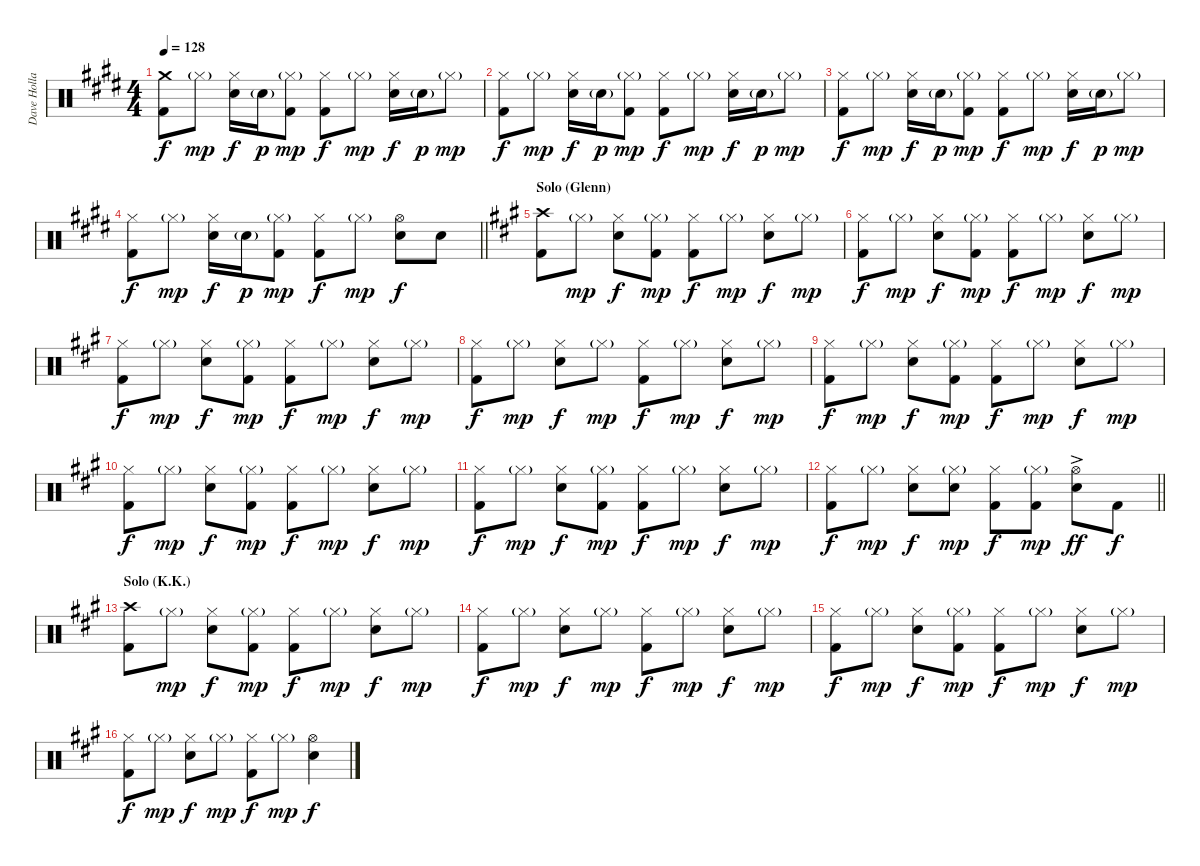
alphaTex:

\track ("Dave Holland" "Dave Holla") {instrument percussion}
\staff {score}
\articulation defaults
\ts (4 4)
\tempo 128
\clef neutral
\ks e
("Crash medium (hit)" "Kick (hit) 2").8{dy f} "Hi-Hat (closed)"{g}.8{dy mp} ("Hi-Hat (closed)" "Electric Snare (hit)").16{dy f} "Electric Snare (hit)"{g}.16{dy p} ("Hi-Hat (closed)"{g} "Kick (hit) 2").8{dy mp} ("Hi-Hat (closed)" "Kick (hit) 2").8{dy f} "Hi-Hat (closed)"{g}.8{dy mp} ("Hi-Hat (closed)" "Electric Snare (hit)").16{dy f} "Electric Snare (hit)"{g}.16{dy p} "Hi-Hat (closed)"{g}.8{dy mp} |
("Hi-Hat (closed)" "Kick (hit) 2").8{dy f} "Hi-Hat (closed)"{g}.8{dy mp} ("Hi-Hat (closed)" "Electric Snare (hit)").16{dy f} "Electric Snare (hit)"{g}.16{dy p} ("Hi-Hat (closed)"{g} "Kick (hit) 2").8{dy mp} ("Hi-Hat (closed)" "Kick (hit) 2").8{dy f} "Hi-Hat (closed)"{g}.8{dy mp} ("Hi-Hat (closed)" "Electric Snare (hit)").16{dy f} "Electric Snare (hit)"{g}.16{dy p} "Hi-Hat (closed)"{g}.8{dy mp} |
("Hi-Hat (closed)" "Kick (hit) 2").8{dy f} "Hi-Hat (closed)"{g}.8{dy mp} ("Hi-Hat (closed)" "Electric Snare (hit)").16{dy f} "Electric Snare (hit)"{g}.16{dy p} ("Hi-Hat (closed)"{g} "Kick (hit) 2").8{dy mp} ("Hi-Hat (closed)" "Kick (hit) 2").8{dy f} "Hi-Hat (closed)"{g}.8{dy mp} ("Hi-Hat (closed)" "Electric Snare (hit)").16{dy f} "Electric Snare (hit)"{g}.16{dy p} "Hi-Hat (closed)"{g}.8{dy mp} |
\barLineRight lightlight
("Hi-Hat (closed)" "Kick (hit) 2").8{dy f} "Hi-Hat (closed)"{g}.8{dy mp} ("Hi-Hat (closed)" "Electric Snare (hit)").16{dy f} "Electric Snare (hit)"{g}.16{dy p} ("Hi-Hat (closed)"{g} "Kick (hit) 2").8{dy mp} ("Hi-Hat (closed)" "Kick (hit) 2").8{dy f} "Hi-Hat (closed)"{g}.8{dy mp} ("Hi-Hat (open)" "Electric Snare (hit)").8{dy f} "Electric Snare (hit)".8 |
\section ("" "Solo (Glenn)")
\ks a
("Crash high (hit)" "Kick (hit) 2").8 "Hi-Hat (closed)"{g}.8{dy mp} ("Hi-Hat (closed)" "Electric Snare (hit)").8{dy f} ("Hi-Hat (closed)"{g} "Kick (hit) 2").8{dy mp} ("Hi-Hat (closed)" "Kick (hit) 2").8{dy f} "Hi-Hat (closed)"{g}.8{dy mp} ("Hi-Hat (closed)" "Electric Snare (hit)").8{dy f} "Hi-Hat (closed)"{g}.8{dy mp} |
("Hi-Hat (closed)" "Kick (hit) 2").8{dy f} "Hi-Hat (closed)"{g}.8{dy mp} ("Hi-Hat (closed)" "Electric Snare (hit)").8{dy f} ("Hi-Hat (closed)"{g} "Kick (hit) 2").8{dy mp} ("Hi-Hat (closed)" "Kick (hit) 2").8{dy f} "Hi-Hat (closed)"{g}.8{dy mp} ("Hi-Hat (closed)" "Electric Snare (hit)").8{dy f} "Hi-Hat (closed)"{g}.8{dy mp} |
("Hi-Hat (closed)" "Kick (hit) 2").8{dy f} "Hi-Hat (closed)"{g}.8{dy mp} ("Hi-Hat (closed)" "Electric Snare (hit)").8{dy f} ("Hi-Hat (closed)"{g} "Kick (hit) 2").8{dy mp} ("Hi-Hat (closed)" "Kick (hit) 2").8{dy f} "Hi-Hat (closed)"{g}.8{dy mp} ("Hi-Hat (closed)" "Electric Snare (hit)").8{dy f} "Hi-Hat (closed)"{g}.8{dy mp} |
("Hi-Hat (closed)" "Kick (hit) 2").8{dy f} "Hi-Hat (closed)"{g}.8{dy mp} ("Hi-Hat (closed)" "Electric Snare (hit)").8{dy f} "Hi-Hat (closed)"{g}.8{dy mp} ("Hi-Hat (closed)" "Kick (hit) 2").8{dy f} "Hi-Hat (closed)"{g}.8{dy mp} ("Hi-Hat (closed)" "Electric Snare (hit)").8{dy f} "Hi-Hat (closed)"{g}.8{dy mp} |
("Hi-Hat (closed)" "Kick (hit) 2").8{dy f} "Hi-Hat (closed)"{g}.8{dy mp} ("Hi-Hat (closed)" "Electric Snare (hit)").8{dy f} ("Hi-Hat (closed)"{g} "Kick (hit) 2").8{dy mp} ("Hi-Hat (closed)" "Kick (hit) 2").8{dy f} "Hi-Hat (closed)"{g}.8{dy mp} ("Hi-Hat (closed)" "Electric Snare (hit)").8{dy f} "Hi-Hat (closed)"{g}.8{dy mp} |
("Hi-Hat (closed)" "Kick (hit) 2").8{dy f} "Hi-Hat (closed)"{g}.8{dy mp} ("Hi-Hat (closed)" "Electric Snare (hit)").8{dy f} ("Hi-Hat (closed)"{g} "Kick (hit) 2").8{dy mp} ("Hi-Hat (closed)" "Kick (hit) 2").8{dy f} "Hi-Hat (closed)"{g}.8{dy mp} ("Hi-Hat (closed)" "Electric Snare (hit)").8{dy f} "Hi-Hat (closed)"{g}.8{dy mp} |
("Hi-Hat (closed)" "Kick (hit) 2").8{dy f} "Hi-Hat (closed)"{g}.8{dy mp} ("Hi-Hat (closed)" "Electric Snare (hit)").8{dy f} ("Hi-Hat (closed)"{g} "Kick (hit) 2").8{dy mp} ("Hi-Hat (closed)" "Kick (hit) 2").8{dy f} "Hi-Hat (closed)"{g}.8{dy mp} ("Hi-Hat (closed)" "Electric Snare (hit)").8{dy f} "Hi-Hat (closed)"{g}.8{dy mp} |
\barLineRight lightlight
("Hi-Hat (closed)" "Kick (hit) 2").8{dy f} "Hi-Hat (closed)"{g}.8{dy mp} ("Hi-Hat (closed)" "Electric Snare (hit)").8{dy f} ("Hi-Hat (closed)"{g} "Electric Snare (hit)").8{dy mp} ("Hi-Hat (closed)" "Kick (hit) 2").8{dy f} ("Hi-Hat (closed)"{g} "Kick (hit) 2").8{dy mp} ("Hi-Hat (open)" "Electric Snare (hit)"{ac}).8{dy ff} "Kick (hit) 2".8{dy f} |
\section ("" "Solo (K.K.)")
("Crash high (hit)" "Kick (hit) 2").8 "Hi-Hat (closed)"{g}.8{dy mp} ("Hi-Hat (closed)" "Electric Snare (hit)").8{dy f} ("Hi-Hat (closed)"{g} "Kick (hit) 2").8{dy mp} ("Hi-Hat (closed)" "Kick (hit) 2").8{dy f} "Hi-Hat (closed)"{g}.8{dy mp} ("Hi-Hat (closed)" "Electric Snare (hit)").8{dy f} "Hi-Hat (closed)"{g}.8{dy mp} |
("Hi-Hat (closed)" "Kick (hit) 2").8{dy f} "Hi-Hat (closed)"{g}.8{dy mp} ("Hi-Hat (closed)" "Electric Snare (hit)").8{dy f} "Hi-Hat (closed)"{g}.8{dy mp} ("Hi-Hat (closed)" "Kick (hit) 2").8{dy f} "Hi-Hat (closed)"{g}.8{dy mp} ("Hi-Hat (closed)" "Electric Snare (hit)").8{dy f} "Hi-Hat (closed)"{g}.8{dy mp} |
("Hi-Hat (closed)" "Kick (hit) 2").8{dy f} "Hi-Hat (closed)"{g}.8{dy mp} ("Hi-Hat (closed)" "Electric Snare (hit)").8{dy f} ("Hi-Hat (closed)"{g} "Kick (hit) 2").8{dy mp} ("Hi-Hat (closed)" "Kick (hit) 2").8{dy f} "Hi-Hat (closed)"{g}.8{dy mp} ("Hi-Hat (closed)" "Electric Snare (hit)").8{dy f} "Hi-Hat (closed)"{g}.8{dy mp} |
("Hi-Hat (closed)" "Kick (hit) 2").8{dy f} "Hi-Hat (closed)"{g}.8{dy mp} ("Hi-Hat (closed)" "Electric Snare (hit)").8{dy f} "Hi-Hat (closed)"{g}.8{dy mp} ("Hi-Hat (closed)" "Kick (hit) 2").8{dy f} "Hi-Hat (closed)"{g}.8{dy mp} ("Hi-Hat (open)" "Electric Snare (hit)").4{dy f}
